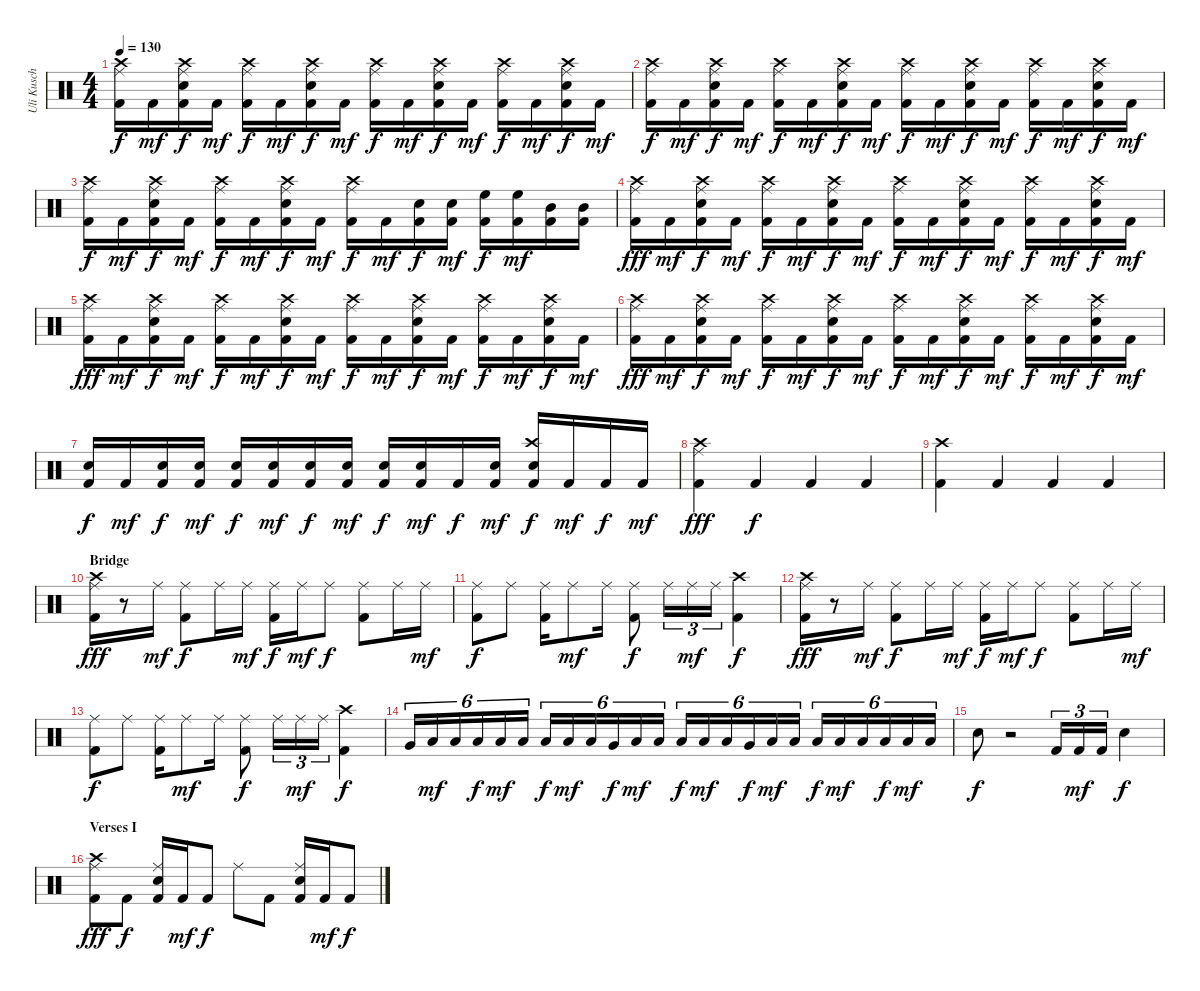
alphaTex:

\track ("Uli Kusch" "Uli Kusch") {instrument percussion}
\staff {score}
\articulation defaults
\ts (4 4)
\tempo 130
\clef neutral
\ks c
("Kick (hit) 2" "Crash high (hit)" "Ride (middle)").16{dy f} "Kick (hit) 2".16{dy mf} ("Ride (middle)" "Kick (hit) 2" "Crash high (hit)" "Snare (hit) 2").16{dy f} "Kick (hit) 2".16{dy mf} ("Kick (hit) 2" "Crash high (hit)" "Ride (middle)").16{dy f} "Kick (hit) 2".16{dy mf} ("Ride (middle)" "Snare (hit) 2" "Crash high (hit)" "Kick (hit) 2").16{dy f} "Kick (hit) 2".16{dy mf} ("Kick (hit) 2" "Crash high (hit)" "Ride (middle)").16{dy f} "Kick (hit) 2".16{dy mf} ("Ride (middle)" "Snare (hit) 2" "Crash high (hit)" "Kick (hit) 2").16{dy f} "Kick (hit) 2".16{dy mf} ("Kick (hit) 2" "Crash high (hit)" "Ride (middle)").16{dy f} "Kick (hit) 2".16{dy mf} ("Ride (middle)" "Snare (hit) 2" "Crash high (hit)" "Kick (hit) 2").16{dy f} "Kick (hit) 2".16{dy mf} |
("Kick (hit) 2" "Crash high (hit)" "Ride (middle)").16{dy f} "Kick (hit) 2".16{dy mf} ("Ride (middle)" "Kick (hit) 2" "Crash high (hit)" "Snare (hit) 2").16{dy f} "Kick (hit) 2".16{dy mf} ("Kick (hit) 2" "Crash high (hit)" "Ride (middle)").16{dy f} "Kick (hit) 2".16{dy mf} ("Ride (middle)" "Snare (hit) 2" "Crash high (hit)" "Kick (hit) 2").16{dy f} "Kick (hit) 2".16{dy mf} ("Kick (hit) 2" "Crash high (hit)" "Ride (middle)").16{dy f} "Kick (hit) 2".16{dy mf} ("Ride (middle)" "Snare (hit) 2" "Crash high (hit)" "Kick (hit) 2").16{dy f} "Kick (hit) 2".16{dy mf} ("Kick (hit) 2" "Crash high (hit)" "Ride (middle)").16{dy f} "Kick (hit) 2".16{dy mf} ("Ride (middle)" "Snare (hit) 2" "Crash high (hit)" "Kick (hit) 2").16{dy f} "Kick (hit) 2".16{dy mf} |
("Kick (hit) 2" "Crash high (hit)" "Ride (middle)").16{dy f} "Kick (hit) 2".16{dy mf} ("Ride (middle)" "Snare (hit) 2" "Crash high (hit)" "Kick (hit) 2").16{dy f} "Kick (hit) 2".16{dy mf} ("Kick (hit) 2" "Crash high (hit)" "Ride (middle)").16{dy f} "Kick (hit) 2".16{dy mf} ("Ride (middle)" "Snare (hit) 2" "Crash high (hit)" "Kick (hit) 2").16{dy f} "Kick (hit) 2".16{dy mf} ("Kick (hit) 2" "Crash high (hit)" "Ride (middle)").16{dy f} "Kick (hit) 2".16{dy mf} ("Snare (hit) 2" "Kick (hit) 2").16{dy f} ("Snare (hit) 2" "Kick (hit) 2").16{dy mf} ("High Floor Tom (hit)" "Kick (hit) 2").16{dy f} ("High Floor Tom (hit)" "Kick (hit) 2").16{dy mf} ("Mid Tom (hit)" "Kick (hit) 2").16 ("Mid Tom (hit)" "Kick (hit) 2").16 |
("Kick (hit) 2" "Crash high (hit)" "Ride (middle)").16{dy fff} "Kick (hit) 2".16{dy mf} ("Ride (middle)" "Kick (hit) 2" "Crash high (hit)" "Snare (hit) 2").16{dy f} "Kick (hit) 2".16{dy mf} ("Kick (hit) 2" "Crash high (hit)" "Ride (middle)").16{dy f} "Kick (hit) 2".16{dy mf} ("Ride (middle)" "Snare (hit) 2" "Crash high (hit)" "Kick (hit) 2").16{dy f} "Kick (hit) 2".16{dy mf} ("Kick (hit) 2" "Crash high (hit)" "Ride (middle)").16{dy f} "Kick (hit) 2".16{dy mf} ("Ride (middle)" "Snare (hit) 2" "Crash high (hit)" "Kick (hit) 2").16{dy f} "Kick (hit) 2".16{dy mf} ("Kick (hit) 2" "Crash high (hit)" "Ride (middle)").16{dy f} "Kick (hit) 2".16{dy mf} ("Ride (middle)" "Snare (hit) 2" "Crash high (hit)" "Kick (hit) 2").16{dy f} "Kick (hit) 2".16{dy mf} |
("Kick (hit) 2" "Crash high (hit)" "Ride (middle)").16{dy fff} "Kick (hit) 2".16{dy mf} ("Ride (middle)" "Kick (hit) 2" "Crash high (hit)" "Snare (hit) 2").16{dy f} "Kick (hit) 2".16{dy mf} ("Kick (hit) 2" "Crash high (hit)" "Ride (middle)").16{dy f} "Kick (hit) 2".16{dy mf} ("Ride (middle)" "Snare (hit) 2" "Crash high (hit)" "Kick (hit) 2").16{dy f} "Kick (hit) 2".16{dy mf} ("Kick (hit) 2" "Crash high (hit)" "Ride (middle)").16{dy f} "Kick (hit) 2".16{dy mf} ("Ride (middle)" "Snare (hit) 2" "Crash high (hit)" "Kick (hit) 2").16{dy f} "Kick (hit) 2".16{dy mf} ("Kick (hit) 2" "Crash high (hit)" "Ride (middle)").16{dy f} "Kick (hit) 2".16{dy mf} ("Ride (middle)" "Snare (hit) 2" "Crash high (hit)" "Kick (hit) 2").16{dy f} "Kick (hit) 2".16{dy mf} |
("Kick (hit) 2" "Crash high (hit)" "Ride (middle)").16{dy fff} "Kick (hit) 2".16{dy mf} ("Ride (middle)" "Kick (hit) 2" "Crash high (hit)" "Snare (hit) 2").16{dy f} "Kick (hit) 2".16{dy mf} ("Kick (hit) 2" "Crash high (hit)" "Ride (middle)").16{dy f} "Kick (hit) 2".16{dy mf} ("Ride (middle)" "Snare (hit) 2" "Crash high (hit)" "Kick (hit) 2").16{dy f} "Kick (hit) 2".16{dy mf} ("Ride (middle)" "Crash high (hit)" "Kick (hit) 2").16{dy f} "Kick (hit) 2".16{dy mf} ("Ride (middle)" "Snare (hit) 2" "Crash high (hit)" "Kick (hit) 2").16{dy f} "Kick (hit) 2".16{dy mf} ("Kick (hit) 2" "Crash high (hit)" "Ride (middle)").16{dy f} "Kick (hit) 2".16{dy mf} ("Ride (middle)" "Snare (hit) 2" "Crash high (hit)" "Kick (hit) 2").16{dy f} "Kick (hit) 2".16{dy mf} |
("Kick (hit) 2" "Snare (hit) 2").16{dy f} "Kick (hit) 2".16{dy mf} ("Kick (hit) 2" "Snare (hit) 2").16{dy f} ("Kick (hit) 2" "Snare (hit) 2").16{dy mf} ("Kick (hit) 2" "Snare (hit) 2").16{dy f} ("Kick (hit) 2" "Snare (hit) 2").16{dy mf} ("Kick (hit) 2" "Snare (hit) 2").16{dy f} ("Kick (hit) 2" "Snare (hit) 2").16{dy mf} ("Kick (hit) 2" "Snare (hit) 2").16{dy f} ("Kick (hit) 2" "Snare (hit) 2").16{dy mf} "Kick (hit) 2".16{dy f} ("Kick (hit) 2" "Snare (hit) 2").16{dy mf} ("Kick (hit) 2" "Snare (hit) 2" "Crash high (hit)").16{dy f} "Kick (hit) 2".16{dy mf} "Kick (hit) 2".16{dy f} "Kick (hit) 2".16{dy mf} |
("Kick (hit) 2" "Crash high (hit)" "Ride (middle)").4{dy fff} "Kick (hit) 2".4{dy f} "Kick (hit) 2".4 "Kick (hit) 2".4 |
("Crash high (hit)" "Kick (hit) 2").4 "Kick (hit) 2".4 "Kick (hit) 2".4 "Kick (hit) 2".4 |
\section ("" "Bridge")
("Ride (middle)" "Crash high (hit)" "Kick (hit) 2").16{dy fff} r.8 "Ride (middle)".16{dy mf} ("Kick (hit) 2" "Ride (middle)").8{dy f} "Ride (middle)".16 "Ride (middle)".16{dy mf} ("Kick (hit) 2" "Ride (middle)").16{dy f} "Ride (middle)".16{dy mf} "Ride (middle)".8{dy f} ("Kick (hit) 2" "Ride (middle)").8 "Ride (middle)".16 "Ride (middle)".16{dy mf} |
("Kick (hit) 2" "Ride (middle)").8{dy f} "Ride (middle)".8 ("Kick (hit) 2" "Ride (middle)").16 "Ride (middle)".8{dy mf} "Ride (middle)".16 ("Kick (hit) 2" "Ride (middle)").8{dy f} "Ride (middle)".16{tu (3 2)} "Ride (middle)".16{tu (3 2) dy mf} "Ride (middle)".16{tu (3 2)} ("Kick (hit) 2" "Crash high (hit)").4{dy f} |
("Ride (middle)" "Crash high (hit)" "Kick (hit) 2").16{dy fff} r.8 "Ride (middle)".16{dy mf} ("Kick (hit) 2" "Ride (middle)").8{dy f} "Ride (middle)".16 "Ride (middle)".16{dy mf} ("Kick (hit) 2" "Ride (middle)").16{dy f} "Ride (middle)".16{dy mf} "Ride (middle)".8{dy f} ("Kick (hit) 2" "Ride (middle)").8 "Ride (middle)".16 "Ride (middle)".16{dy mf} |
("Kick (hit) 2" "Ride (middle)").8{dy f} "Ride (middle)".8 ("Kick (hit) 2" "Ride (middle)").16 "Ride (middle)".8{dy mf} "Ride (middle)".16 ("Kick (hit) 2" "Ride (middle)").8{dy f} "Ride (middle)".16{tu (3 2)} "Ride (middle)".16{tu (3 2) dy mf} "Ride (middle)".16{tu (3 2)} ("Kick (hit) 2" "Crash high (hit)").4{dy f} |
"Very Low Tom (hit)".16{tu (6 4)} "Low Tom (hit)".16{tu (6 4) dy mf} "Low Tom (hit)".16{tu (6 4)} "Low Tom (hit)".16{tu (6 4) dy f} "Low Tom (hit)".16{tu (6 4) dy mf} "Low Tom (hit)".16{tu (6 4)} "Low Tom (hit)".16{tu (6 4) dy f} "Low Tom (hit)".16{tu (6 4) dy mf} "Low Tom (hit)".16{tu (6 4)} "Very Low Tom (hit)".16{tu (6 4) dy f} "Low Tom (hit)".16{tu (6 4) dy mf} "Low Tom (hit)".16{tu (6 4)} "Low Tom (hit)".16{tu (6 4) dy f} "Low Tom (hit)".16{tu (6 4) dy mf} "Low Tom (hit)".16{tu (6 4)} "Very Low Tom (hit)".16{tu (6 4) dy f} "Low Tom (hit)".16{tu (6 4) dy mf} "Low Tom (hit)".16{tu (6 4)} "Low Tom (hit)".16{tu (6 4) dy f} "Low Tom (hit)".16{tu (6 4) dy mf} "Low Tom (hit)".16{tu (6 4)} "Low Tom (hit)".16{tu (6 4) dy f} "Low Tom (hit)".16{tu (6 4) dy mf} "Low Tom (hit)".16{tu (6 4)} |
"Electric Snare (hit)".8{dy f} r.2 "Kick (hit) 2".16{tu (3 2)} "Kick (hit) 2".16{tu (3 2) dy mf} "Kick (hit) 2".16{tu (3 2)} "Electric Snare (hit)".4{dy f} |
\section ("" "Verses I")
("Ride (middle)" "Crash high (hit)" "Kick (hit) 2").8{dy fff} "Kick (hit) 2".8{dy f} ("Kick (hit) 2" "Electric Snare (hit)" "Ride (middle)").16 "Kick (hit) 2".16{dy mf} "Kick (hit) 2".8{dy f} "Ride (middle)".8 "Kick (hit) 2".8 ("Kick (hit) 2" "Electric Snare (hit)" "Ride (middle)").16 "Kick (hit) 2".16{dy mf} "Kick (hit) 2".8{dy f}
